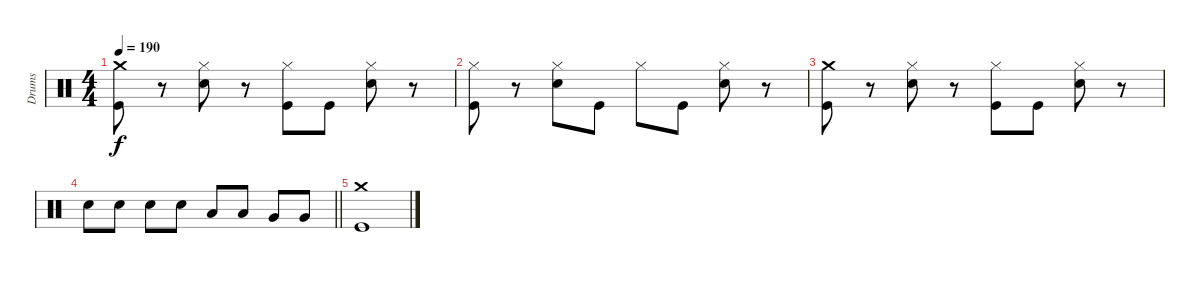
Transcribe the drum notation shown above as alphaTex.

\track ("Drums" "Drums") {instrument percussion}
\staff {score}
\articulation defaults
\ts (4 4)
\tempo 190
\clef neutral
\ks c
("Crash medium (hit)" "Kick (hit)").8{dy f} r.8 ("Hi-Hat (closed)" "Snare (hit) 2").8 r.8 ("Hi-Hat (closed)" "Kick (hit)").8 "Kick (hit)".8 ("Hi-Hat (closed)" "Snare (hit) 2").8 r.8 |
("Hi-Hat (closed)" "Kick (hit)").8 r.8 ("Hi-Hat (closed)" "Snare (hit) 2").8 "Kick (hit)".8 "Hi-Hat (closed)".8 "Kick (hit)".8 ("Hi-Hat (closed)" "Snare (hit) 2").8 r.8 |
("Crash medium (hit)" "Kick (hit)").8 r.8 ("Hi-Hat (closed)" "Snare (hit) 2").8 r.8 ("Hi-Hat (closed)" "Kick (hit)").8 "Kick (hit)".8 ("Hi-Hat (closed)" "Snare (hit) 2").8 r.8 |
\barLineRight lightlight "Snare (hit) 2".8 "Snare (hit) 2".8 "Snare (hit) 2".8 "Snare (hit) 2".8 "Low Tom (hit)".8 "Low Tom (hit)".8 "Very Low Tom (hit)".8 "Very Low Tom (hit)".8
|
("Crash medium (hit)" "Kick (hit)").1
